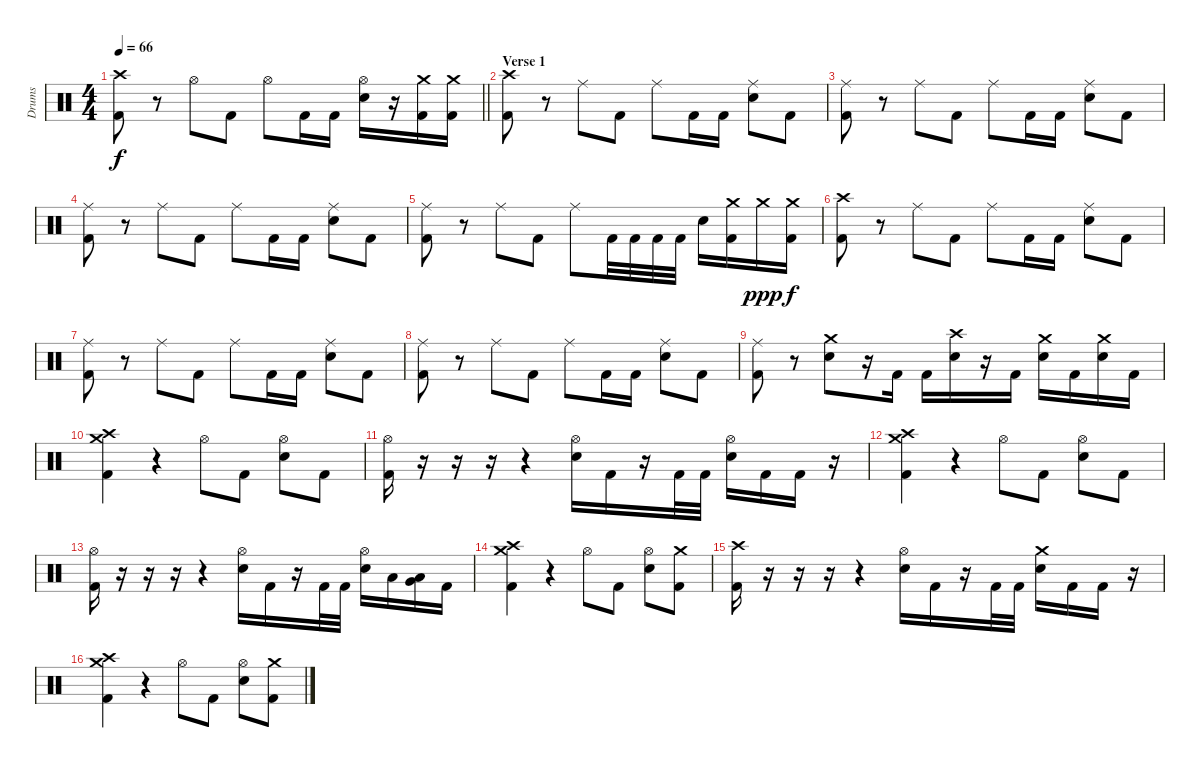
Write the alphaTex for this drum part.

\track ("Drums" "Drums") {instrument percussion}
\staff {score}
\articulation defaults
\ts (4 4)
\tempo 66
\clef neutral
\barLineRight lightlight
\ks c
("Crash high (hit)" "Kick (hit) 2").8{dy f} r.8 "Hi-Hat (open)".8 "Kick (hit) 2".8 "Hi-Hat (open)".8 "Kick (hit) 2".16 "Kick (hit) 2".16 ("Hi-Hat (open)" "Snare (hit) 2").16 r.16 ("Crash medium (hit)" "Kick (hit) 2").16 ("Crash medium (hit)" "Kick (hit) 2").16 |
\section ("" "Verse 1")
("Crash high (hit)" "Kick (hit) 2").8 r.8 "Ride (middle)".8 "Kick (hit) 2".8 "Ride (middle)".8 "Kick (hit) 2".16 "Kick (hit) 2".16 ("Ride (middle)" "Snare (hit) 2").8 "Kick (hit) 2".8 |
("Ride (middle)" "Kick (hit) 2").8 r.8 "Ride (middle)".8 "Kick (hit) 2".8 "Ride (middle)".8 "Kick (hit) 2".16 "Kick (hit) 2".16 ("Ride (middle)" "Snare (hit) 2").8 "Kick (hit) 2".8 |
("Ride (middle)" "Kick (hit) 2").8 r.8 "Ride (middle)".8 "Kick (hit) 2".8 "Ride (middle)".8 "Kick (hit) 2".16 "Kick (hit) 2".16 ("Ride (middle)" "Snare (hit) 2").8 "Kick (hit) 2".8 |
("Ride (middle)" "Kick (hit) 2").8 r.8 "Ride (middle)".8 "Kick (hit) 2".8 "Ride (middle)".8 "Kick (hit) 2".32 "Kick (hit) 2".32 "Kick (hit) 2".32 "Kick (hit) 2".32 "Snare (hit) 2".16 ("Crash medium (hit)" "Kick (hit) 2").16 "Crash medium (hit)".16{dy ppp} ("Crash medium (hit)" "Kick (hit) 2").16{dy f} |
("Crash high (hit)" "Kick (hit) 2").8 r.8 "Ride (middle)".8 "Kick (hit) 2".8 "Ride (middle)".8 "Kick (hit) 2".16 "Kick (hit) 2".16 ("Ride (middle)" "Snare (hit) 2").8 "Kick (hit) 2".8 |
("Ride (middle)" "Kick (hit) 2").8 r.8 "Ride (middle)".8 "Kick (hit) 2".8 "Ride (middle)".8 "Kick (hit) 2".16 "Kick (hit) 2".16 ("Ride (middle)" "Snare (hit) 2").8 "Kick (hit) 2".8 |
("Ride (middle)" "Kick (hit) 2").8 r.8 "Ride (middle)".8 "Kick (hit) 2".8 "Ride (middle)".8 "Kick (hit) 2".16 "Kick (hit) 2".16 ("Ride (middle)" "Snare (hit) 2").8 "Kick (hit) 2".8 |
("Ride (middle)" "Kick (hit) 2").8 r.8 ("Crash medium (hit)" "Snare (hit) 2").8 r.16 "Kick (hit) 2".16 "Kick (hit) 2".16 ("Crash high (hit)" "Snare (hit) 2").16 r.16 "Kick (hit) 2".16 ("Crash medium (hit)" "Snare (hit) 2").16 "Kick (hit) 2".16 ("Crash medium (hit)" "Snare (hit) 2").16 "Kick (hit) 2".16 |
("Crash high (hit)" "Crash medium (hit)" "Kick (hit) 2").4 r.4 "Hi-Hat (open)".8 "Kick (hit) 2".8 ("Hi-Hat (open)" "Snare (hit) 2").8 "Kick (hit) 2".8 |
("Hi-Hat (open)" "Kick (hit) 2").16 r.16 r.16 r.16 r.4 ("Hi-Hat (open)" "Snare (hit) 2").16 "Kick (hit) 2".16 r.16 "Kick (hit) 2".32 "Kick (hit) 2".32 ("Hi-Hat (open)" "Snare (hit) 2").16 "Kick (hit) 2".16 "Kick (hit) 2".16 r.16 |
("Crash high (hit)" "Crash medium (hit)" "Kick (hit) 2").4 r.4 "Hi-Hat (open)".8 "Kick (hit) 2".8 ("Hi-Hat (open)" "Snare (hit) 2").8 "Kick (hit) 2".8 |
("Hi-Hat (open)" "Kick (hit) 2").16 r.16 r.16 r.16 r.4 ("Hi-Hat (open)" "Snare (hit) 2").16 "Kick (hit) 2".16 r.16 "Kick (hit) 2".32 "Kick (hit) 2".32 ("Hi-Hat (open)" "Snare (hit) 2").16 "Low Tom (hit)".16 ("Low Tom (hit)" "Very Low Tom (hit)").16 "Kick (hit) 2".16 |
("Crash high (hit)" "Crash medium (hit)" "Kick (hit) 2").4 r.4 "Hi-Hat (open)".8 "Kick (hit) 2".8 ("Hi-Hat (open)" "Snare (hit) 2").8 ("Crash medium (hit)" "Kick (hit) 2").8 |
("Crash high (hit)" "Kick (hit) 2").16 r.16 r.16 r.16 r.4 ("Hi-Hat (open)" "Snare (hit) 2").16 "Kick (hit) 2".16 r.16 "Kick (hit) 2".32 "Kick (hit) 2".32 ("Crash medium (hit)" "Snare (hit) 2").16 "Kick (hit) 2".16 "Kick (hit) 2".16 r.16 |
("Crash high (hit)" "Crash medium (hit)" "Kick (hit) 2").4 r.4 "Hi-Hat (open)".8 "Kick (hit) 2".8 ("Hi-Hat (open)" "Snare (hit) 2").8 ("Crash medium (hit)" "Kick (hit) 2").8
